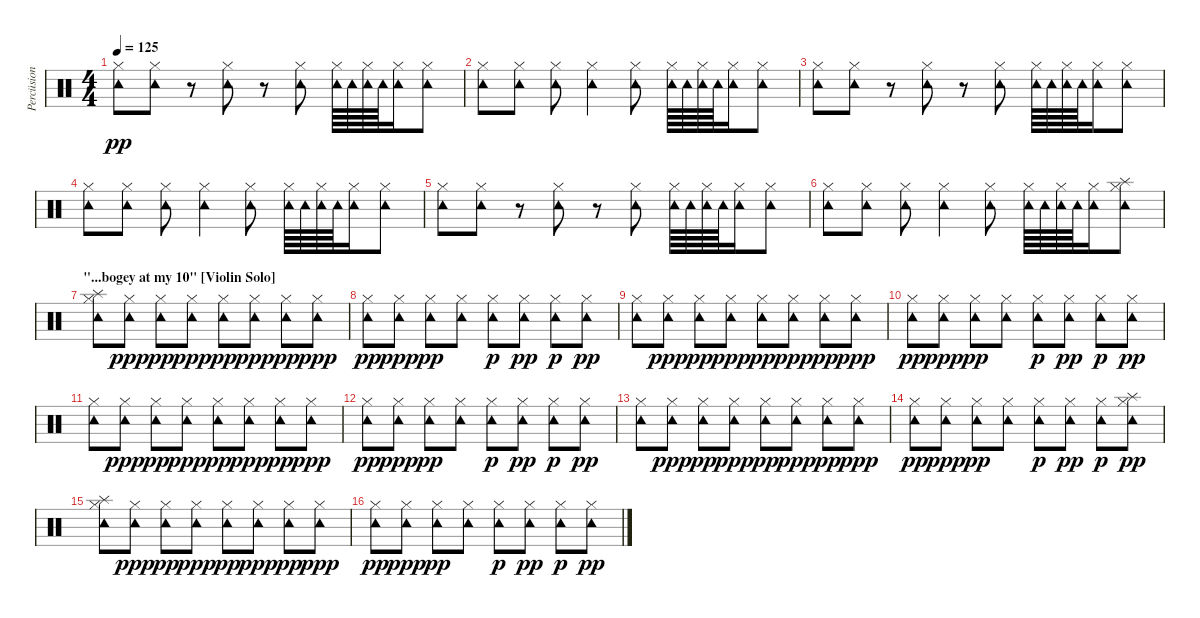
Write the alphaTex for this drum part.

\track ("Percüsion" "Percüsion") {instrument percussion}
\staff {score}
\articulation defaults
\ts (4 4)
\tempo 125
\clef neutral
\ks c
("Hi-Hat (closed)" "Tambourine (hit)").8{dy pp} ("Hi-Hat (closed)" "Tambourine (hit)").8 r.8 ("Hi-Hat (closed)" "Tambourine (hit)").8 r.8 ("Hi-Hat (closed)" "Tambourine (hit)").8 ("Hi-Hat (closed)" "Tambourine (hit)").64 "Tambourine (hit)".64 ("Hi-Hat (closed)" "Tambourine (hit)").64 "Tambourine (hit)".64 ("Hi-Hat (closed)" "Tambourine (hit)").16 ("Hi-Hat (closed)" "Tambourine (hit)").8 |
("Hi-Hat (closed)" "Tambourine (hit)").8 ("Hi-Hat (closed)" "Tambourine (hit)").8 ("Hi-Hat (closed)" "Tambourine (hit)").8 ("Hi-Hat (closed)" "Tambourine (hit)").4 ("Hi-Hat (closed)" "Tambourine (hit)").8 ("Hi-Hat (closed)" "Tambourine (hit)").64 "Tambourine (hit)".64 ("Hi-Hat (closed)" "Tambourine (hit)").64 "Tambourine (hit)".64 ("Hi-Hat (closed)" "Tambourine (hit)").16 ("Hi-Hat (closed)" "Tambourine (hit)").8 |
("Hi-Hat (closed)" "Tambourine (hit)").8 ("Hi-Hat (closed)" "Tambourine (hit)").8 r.8 ("Hi-Hat (closed)" "Tambourine (hit)").8 r.8 ("Hi-Hat (closed)" "Tambourine (hit)").8 ("Hi-Hat (closed)" "Tambourine (hit)").64 "Tambourine (hit)".64 ("Hi-Hat (closed)" "Tambourine (hit)").64 "Tambourine (hit)".64 ("Hi-Hat (closed)" "Tambourine (hit)").16 ("Hi-Hat (closed)" "Tambourine (hit)").8 |
("Hi-Hat (closed)" "Tambourine (hit)").8 ("Hi-Hat (closed)" "Tambourine (hit)").8 ("Hi-Hat (closed)" "Tambourine (hit)").8 ("Hi-Hat (closed)" "Tambourine (hit)").4 ("Hi-Hat (closed)" "Tambourine (hit)").8 ("Hi-Hat (closed)" "Tambourine (hit)").64 "Tambourine (hit)".64 ("Hi-Hat (closed)" "Tambourine (hit)").64 "Tambourine (hit)".64 ("Hi-Hat (closed)" "Tambourine (hit)").16 ("Hi-Hat (closed)" "Tambourine (hit)").8 |
("Hi-Hat (closed)" "Tambourine (hit)").8 ("Hi-Hat (closed)" "Tambourine (hit)").8 r.8 ("Hi-Hat (closed)" "Tambourine (hit)").8 r.8 ("Hi-Hat (closed)" "Tambourine (hit)").8 ("Hi-Hat (closed)" "Tambourine (hit)").64 "Tambourine (hit)".64 ("Hi-Hat (closed)" "Tambourine (hit)").64 "Tambourine (hit)".64 ("Hi-Hat (closed)" "Tambourine (hit)").16 ("Hi-Hat (closed)" "Tambourine (hit)").8 |
("Hi-Hat (closed)" "Tambourine (hit)").8 ("Hi-Hat (closed)" "Tambourine (hit)").8 ("Hi-Hat (closed)" "Tambourine (hit)").8 ("Hi-Hat (closed)" "Tambourine (hit)").4 ("Hi-Hat (closed)" "Tambourine (hit)").8 ("Hi-Hat (closed)" "Tambourine (hit)").64 "Tambourine (hit)".64 ("Hi-Hat (closed)" "Tambourine (hit)").64 "Tambourine (hit)".64 ("Hi-Hat (closed)" "Tambourine (hit)").16 ("Splash (hit)" "Hi-Hat (closed)" "Tambourine (hit)").8 |
\section ("" "\"...bogey at my 10\" [Violin Solo]")
("Splash (hit)" "Hi-Hat (closed)" "Tambourine (hit)").8 ("Hi-Hat (closed)" "Tambourine (hit)").8{dy ppp} ("Hi-Hat (closed)" "Tambourine (hit)").8{dy pp} ("Hi-Hat (closed)" "Tambourine (hit)").8{dy ppp} ("Hi-Hat (closed)" "Tambourine (hit)").8{dy pp} ("Hi-Hat (closed)" "Tambourine (hit)").8{dy ppp} ("Hi-Hat (closed)" "Tambourine (hit)").8{dy pp} ("Hi-Hat (closed)" "Tambourine (hit)").8{dy ppp} |
("Hi-Hat (closed)" "Tambourine (hit)").8{dy pp} ("Hi-Hat (closed)" "Tambourine (hit)").8{dy ppp} ("Hi-Hat (closed)" "Tambourine (hit)").8{dy pp} ("Hi-Hat (closed)" "Tambourine (hit)").8 ("Hi-Hat (closed)" "Tambourine (hit)").8{dy p} ("Hi-Hat (closed)" "Tambourine (hit)").8{dy pp} ("Hi-Hat (closed)" "Tambourine (hit)").8{dy p} ("Hi-Hat (closed)" "Tambourine (hit)").8{dy pp} |
("Hi-Hat (closed)" "Tambourine (hit)").8 ("Hi-Hat (closed)" "Tambourine (hit)").8{dy ppp} ("Hi-Hat (closed)" "Tambourine (hit)").8{dy pp} ("Hi-Hat (closed)" "Tambourine (hit)").8{dy ppp} ("Hi-Hat (closed)" "Tambourine (hit)").8{dy pp} ("Hi-Hat (closed)" "Tambourine (hit)").8{dy ppp} ("Hi-Hat (closed)" "Tambourine (hit)").8{dy pp} ("Hi-Hat (closed)" "Tambourine (hit)").8{dy ppp} |
("Hi-Hat (closed)" "Tambourine (hit)").8{dy pp} ("Hi-Hat (closed)" "Tambourine (hit)").8{dy ppp} ("Hi-Hat (closed)" "Tambourine (hit)").8{dy pp} ("Hi-Hat (closed)" "Tambourine (hit)").8 ("Hi-Hat (closed)" "Tambourine (hit)").8{dy p} ("Hi-Hat (closed)" "Tambourine (hit)").8{dy pp} ("Hi-Hat (closed)" "Tambourine (hit)").8{dy p} ("Hi-Hat (closed)" "Tambourine (hit)").8{dy pp} |
("Hi-Hat (closed)" "Tambourine (hit)").8 ("Hi-Hat (closed)" "Tambourine (hit)").8{dy ppp} ("Hi-Hat (closed)" "Tambourine (hit)").8{dy pp} ("Hi-Hat (closed)" "Tambourine (hit)").8{dy ppp} ("Hi-Hat (closed)" "Tambourine (hit)").8{dy pp} ("Hi-Hat (closed)" "Tambourine (hit)").8{dy ppp} ("Hi-Hat (closed)" "Tambourine (hit)").8{dy pp} ("Hi-Hat (closed)" "Tambourine (hit)").8{dy ppp} |
("Hi-Hat (closed)" "Tambourine (hit)").8{dy pp} ("Hi-Hat (closed)" "Tambourine (hit)").8{dy ppp} ("Hi-Hat (closed)" "Tambourine (hit)").8{dy pp} ("Hi-Hat (closed)" "Tambourine (hit)").8 ("Hi-Hat (closed)" "Tambourine (hit)").8{dy p} ("Hi-Hat (closed)" "Tambourine (hit)").8{dy pp} ("Hi-Hat (closed)" "Tambourine (hit)").8{dy p} ("Hi-Hat (closed)" "Tambourine (hit)").8{dy pp} |
("Hi-Hat (closed)" "Tambourine (hit)").8 ("Hi-Hat (closed)" "Tambourine (hit)").8{dy ppp} ("Hi-Hat (closed)" "Tambourine (hit)").8{dy pp} ("Hi-Hat (closed)" "Tambourine (hit)").8{dy ppp} ("Hi-Hat (closed)" "Tambourine (hit)").8{dy pp} ("Hi-Hat (closed)" "Tambourine (hit)").8{dy ppp} ("Hi-Hat (closed)" "Tambourine (hit)").8{dy pp} ("Hi-Hat (closed)" "Tambourine (hit)").8{dy ppp} |
("Hi-Hat (closed)" "Tambourine (hit)").8{dy pp} ("Hi-Hat (closed)" "Tambourine (hit)").8{dy ppp} ("Hi-Hat (closed)" "Tambourine (hit)").8{dy pp} ("Hi-Hat (closed)" "Tambourine (hit)").8 ("Hi-Hat (closed)" "Tambourine (hit)").8{dy p} ("Hi-Hat (closed)" "Tambourine (hit)").8{dy pp} ("Hi-Hat (closed)" "Tambourine (hit)").8{dy p} ("Splash (hit)" "Hi-Hat (closed)" "Tambourine (hit)").8{dy pp} |
("Splash (hit)" "Hi-Hat (closed)" "Tambourine (hit)").8 ("Hi-Hat (closed)" "Tambourine (hit)").8{dy ppp} ("Hi-Hat (closed)" "Tambourine (hit)").8{dy pp} ("Hi-Hat (closed)" "Tambourine (hit)").8{dy ppp} ("Hi-Hat (closed)" "Tambourine (hit)").8{dy pp} ("Hi-Hat (closed)" "Tambourine (hit)").8{dy ppp} ("Hi-Hat (closed)" "Tambourine (hit)").8{dy pp} ("Hi-Hat (closed)" "Tambourine (hit)").8{dy ppp} |
("Hi-Hat (closed)" "Tambourine (hit)").8{dy pp} ("Hi-Hat (closed)" "Tambourine (hit)").8{dy ppp} ("Hi-Hat (closed)" "Tambourine (hit)").8{dy pp} ("Hi-Hat (closed)" "Tambourine (hit)").8 ("Hi-Hat (closed)" "Tambourine (hit)").8{dy p} ("Hi-Hat (closed)" "Tambourine (hit)").8{dy pp} ("Hi-Hat (closed)" "Tambourine (hit)").8{dy p} ("Hi-Hat (closed)" "Tambourine (hit)").8{dy pp}
